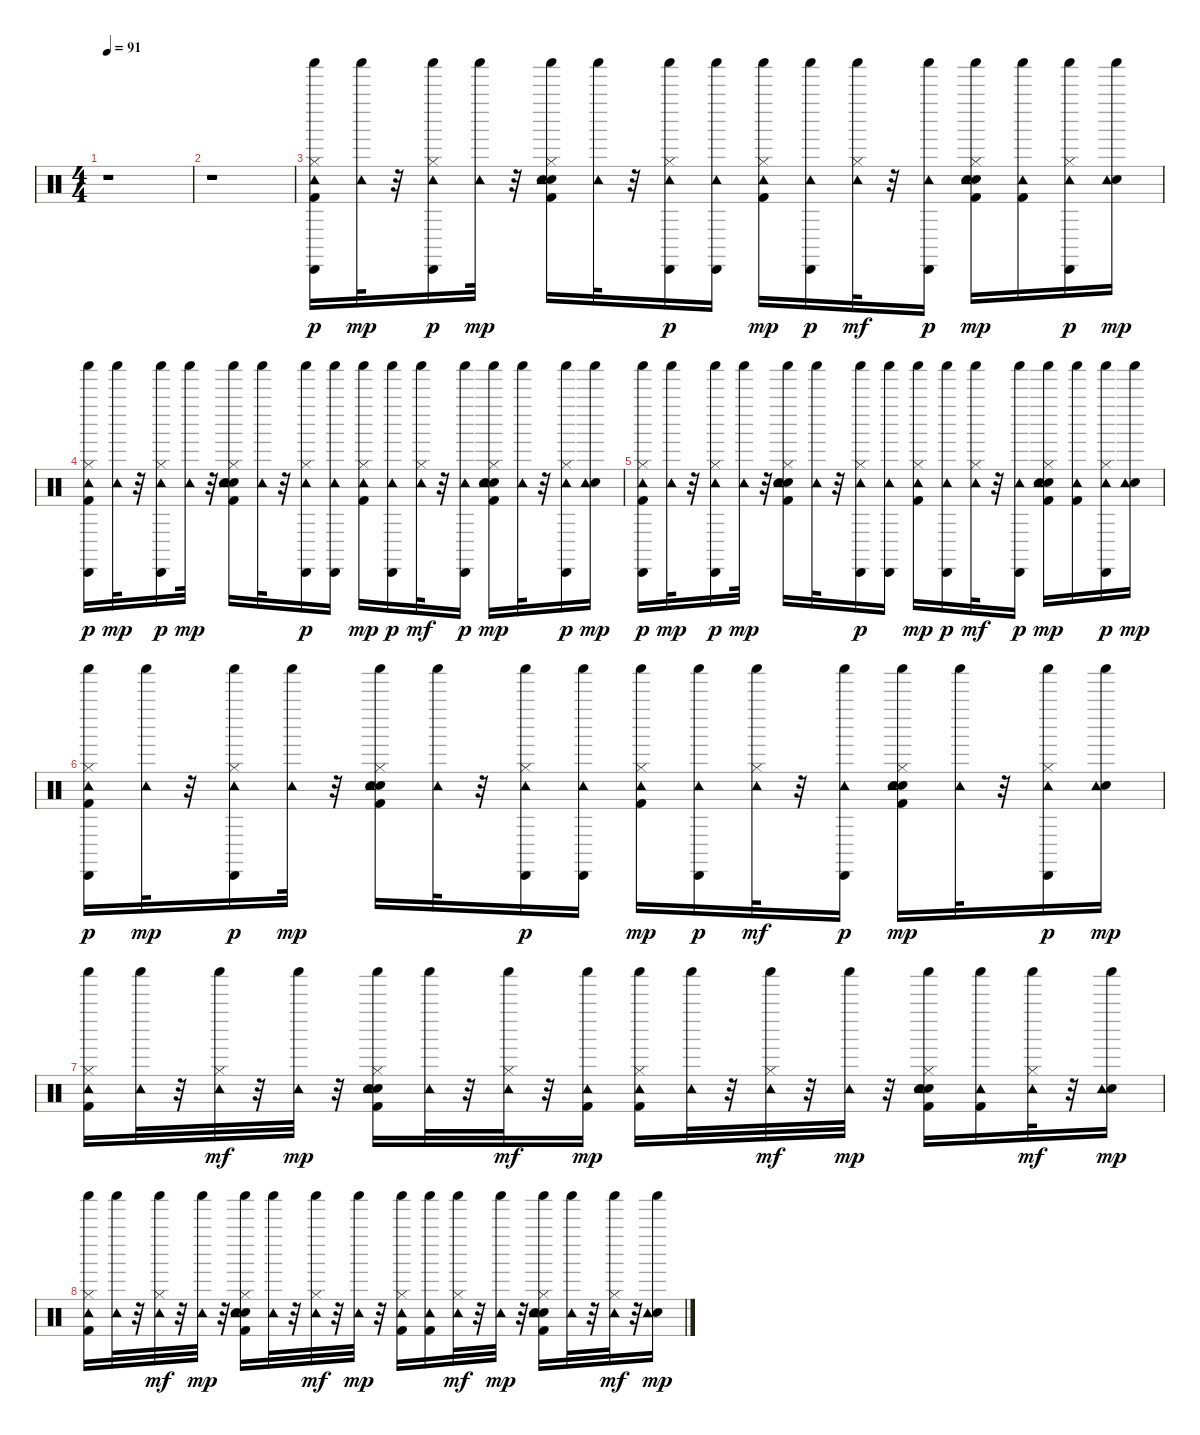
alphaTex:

\track "" {instrument percussion}
\staff {score}
\articulation defaults
\ts (4 4)
\tempo 91
\clef neutral
\ks c
r.1{dy p} |
r.1 |
("Kick (hit) 2" "Hi-Hat (closed)" "Tambourine (hit)" "Shaker (hit)" "Cabasa (hit)").16 ("Tambourine (hit)" "Shaker (hit)").32{dy mp} r.32 ("Hi-Hat (closed)" "Tambourine (hit)" "Shaker (hit)" "Cabasa (hit)").16{dy p} ("Tambourine (hit)" "Shaker (hit)").32{dy mp} r.32 ("Kick (hit) 2" "Electric Snare (hit)" "Hi-Hat (closed)" "Hand Clap (hit)" "Tambourine (hit)" "Shaker (hit)").16 ("Tambourine (hit)" "Shaker (hit)").32 r.32 ("Hi-Hat (closed)" "Tambourine (hit)" "Shaker (hit)" "Cabasa (hit)").16{dy p} ("Tambourine (hit)" "Shaker (hit)" "Cabasa (hit)").16 ("Kick (hit) 2" "Hi-Hat (closed)" "Tambourine (hit)" "Shaker (hit)").16{dy mp} ("Tambourine (hit)" "Shaker (hit)" "Cabasa (hit)").16{dy p} ("Hi-Hat (closed)" "Tambourine (hit)" "Shaker (hit)").32{dy mf} r.32 ("Tambourine (hit)" "Shaker (hit)" "Cabasa (hit)").16{dy p} ("Kick (hit) 2" "Electric Snare (hit)" "Hi-Hat (closed)" "Hand Clap (hit)" "Tambourine (hit)" "Shaker (hit)").16{dy mp} ("Kick (hit) 2" "Tambourine (hit)" "Shaker (hit)").16 ("Hi-Hat (closed)" "Tambourine (hit)" "Shaker (hit)" "Cabasa (hit)").16{dy p} ("Electric Snare (hit)" "Tambourine (hit)" "Shaker (hit)").16{dy mp} |
("Kick (hit) 2" "Hi-Hat (closed)" "Tambourine (hit)" "Shaker (hit)" "Cabasa (hit)").16{dy p} ("Tambourine (hit)" "Shaker (hit)").32{dy mp} r.32 ("Hi-Hat (closed)" "Tambourine (hit)" "Shaker (hit)" "Cabasa (hit)").16{dy p} ("Tambourine (hit)" "Shaker (hit)").32{dy mp} r.32 ("Kick (hit) 2" "Electric Snare (hit)" "Hi-Hat (closed)" "Hand Clap (hit)" "Tambourine (hit)" "Shaker (hit)").16 ("Tambourine (hit)" "Shaker (hit)").32 r.32 ("Hi-Hat (closed)" "Tambourine (hit)" "Shaker (hit)" "Cabasa (hit)").16{dy p} ("Tambourine (hit)" "Shaker (hit)" "Cabasa (hit)").16 ("Kick (hit) 2" "Hi-Hat (closed)" "Tambourine (hit)" "Shaker (hit)").16{dy mp} ("Tambourine (hit)" "Shaker (hit)" "Cabasa (hit)").16{dy p} ("Hi-Hat (closed)" "Tambourine (hit)" "Shaker (hit)").32{dy mf} r.32 ("Tambourine (hit)" "Shaker (hit)" "Cabasa (hit)").16{dy p} ("Kick (hit) 2" "Electric Snare (hit)" "Hi-Hat (closed)" "Hand Clap (hit)" "Tambourine (hit)" "Shaker (hit)").16{dy mp} ("Tambourine (hit)" "Shaker (hit)").32 r.32 ("Hi-Hat (closed)" "Tambourine (hit)" "Shaker (hit)" "Cabasa (hit)").16{dy p} ("Electric Snare (hit)" "Tambourine (hit)" "Shaker (hit)").16{dy mp} |
("Kick (hit) 2" "Hi-Hat (closed)" "Tambourine (hit)" "Shaker (hit)" "Cabasa (hit)").16{dy p} ("Tambourine (hit)" "Shaker (hit)").32{dy mp} r.32 ("Hi-Hat (closed)" "Tambourine (hit)" "Shaker (hit)" "Cabasa (hit)").16{dy p} ("Tambourine (hit)" "Shaker (hit)").32{dy mp} r.32 ("Kick (hit) 2" "Electric Snare (hit)" "Hi-Hat (closed)" "Hand Clap (hit)" "Tambourine (hit)" "Shaker (hit)").16 ("Tambourine (hit)" "Shaker (hit)").32 r.32 ("Hi-Hat (closed)" "Tambourine (hit)" "Shaker (hit)" "Cabasa (hit)").16{dy p} ("Tambourine (hit)" "Shaker (hit)" "Cabasa (hit)").16 ("Kick (hit) 2" "Hi-Hat (closed)" "Tambourine (hit)" "Shaker (hit)").16{dy mp} ("Tambourine (hit)" "Shaker (hit)" "Cabasa (hit)").16{dy p} ("Hi-Hat (closed)" "Tambourine (hit)" "Shaker (hit)").32{dy mf} r.32 ("Tambourine (hit)" "Shaker (hit)" "Cabasa (hit)").16{dy p} ("Kick (hit) 2" "Electric Snare (hit)" "Hi-Hat (closed)" "Hand Clap (hit)" "Tambourine (hit)" "Shaker (hit)").16{dy mp} ("Kick (hit) 2" "Tambourine (hit)" "Shaker (hit)").16 ("Hi-Hat (closed)" "Tambourine (hit)" "Shaker (hit)" "Cabasa (hit)").16{dy p} ("Electric Snare (hit)" "Tambourine (hit)" "Shaker (hit)").16{dy mp} |
("Kick (hit) 2" "Hi-Hat (closed)" "Tambourine (hit)" "Shaker (hit)" "Cabasa (hit)").16{dy p} ("Tambourine (hit)" "Shaker (hit)").32{dy mp} r.32 ("Hi-Hat (closed)" "Tambourine (hit)" "Shaker (hit)" "Cabasa (hit)").16{dy p} ("Tambourine (hit)" "Shaker (hit)").32{dy mp} r.32 ("Kick (hit) 2" "Electric Snare (hit)" "Hi-Hat (closed)" "Hand Clap (hit)" "Tambourine (hit)" "Shaker (hit)").16 ("Tambourine (hit)" "Shaker (hit)").32 r.32 ("Hi-Hat (closed)" "Tambourine (hit)" "Shaker (hit)" "Cabasa (hit)").16{dy p} ("Tambourine (hit)" "Shaker (hit)" "Cabasa (hit)").16 ("Kick (hit) 2" "Hi-Hat (closed)" "Tambourine (hit)" "Shaker (hit)").16{dy mp} ("Tambourine (hit)" "Shaker (hit)" "Cabasa (hit)").16{dy p} ("Hi-Hat (closed)" "Tambourine (hit)" "Shaker (hit)").32{dy mf} r.32 ("Tambourine (hit)" "Shaker (hit)" "Cabasa (hit)").16{dy p} ("Kick (hit) 2" "Electric Snare (hit)" "Hi-Hat (closed)" "Hand Clap (hit)" "Tambourine (hit)" "Shaker (hit)").16{dy mp} ("Tambourine (hit)" "Shaker (hit)").32 r.32 ("Hi-Hat (closed)" "Tambourine (hit)" "Shaker (hit)" "Cabasa (hit)").16{dy p} ("Electric Snare (hit)" "Tambourine (hit)" "Shaker (hit)").16{dy mp} |
("Kick (hit) 2" "Hi-Hat (closed)" "Tambourine (hit)" "Shaker (hit)").16 ("Tambourine (hit)" "Shaker (hit)").32 r.32 ("Hi-Hat (closed)" "Tambourine (hit)" "Shaker (hit)").32{dy mf} r.32 ("Tambourine (hit)" "Shaker (hit)").32{dy mp} r.32 ("Kick (hit) 2" "Electric Snare (hit)" "Hi-Hat (closed)" "Hand Clap (hit)" "Tambourine (hit)" "Shaker (hit)").16 ("Tambourine (hit)" "Shaker (hit)").32 r.32 ("Hi-Hat (closed)" "Tambourine (hit)" "Shaker (hit)").32{dy mf} r.32 ("Kick (hit) 2" "Tambourine (hit)" "Shaker (hit)").16{dy mp} ("Kick (hit) 2" "Hi-Hat (closed)" "Tambourine (hit)" "Shaker (hit)").16 ("Tambourine (hit)" "Shaker (hit)").32 r.32 ("Hi-Hat (closed)" "Tambourine (hit)" "Shaker (hit)").32{dy mf} r.32 ("Tambourine (hit)" "Shaker (hit)").32{dy mp} r.32 ("Kick (hit) 2" "Electric Snare (hit)" "Hi-Hat (closed)" "Hand Clap (hit)" "Tambourine (hit)" "Shaker (hit)").16 ("Kick (hit) 2" "Tambourine (hit)" "Shaker (hit)").16 ("Hi-Hat (closed)" "Tambourine (hit)" "Shaker (hit)").32{dy mf} r.32 ("Electric Snare (hit)" "Tambourine (hit)" "Shaker (hit)").16{dy mp} |
("Kick (hit) 2" "Hi-Hat (closed)" "Tambourine (hit)" "Shaker (hit)").16 ("Tambourine (hit)" "Shaker (hit)").32 r.32 ("Hi-Hat (closed)" "Tambourine (hit)" "Shaker (hit)").32{dy mf} r.32 ("Tambourine (hit)" "Shaker (hit)").32{dy mp} r.32 ("Kick (hit) 2" "Electric Snare (hit)" "Hi-Hat (closed)" "Hand Clap (hit)" "Tambourine (hit)" "Shaker (hit)").16 ("Tambourine (hit)" "Shaker (hit)").32 r.32 ("Hi-Hat (closed)" "Tambourine (hit)" "Shaker (hit)").32{dy mf} r.32 ("Tambourine (hit)" "Shaker (hit)").32{dy mp} r.32 ("Kick (hit) 2" "Hi-Hat (closed)" "Tambourine (hit)" "Shaker (hit)").16 ("Kick (hit) 2" "Tambourine (hit)" "Shaker (hit)").16 ("Hi-Hat (closed)" "Tambourine (hit)" "Shaker (hit)").32{dy mf} r.32 ("Tambourine (hit)" "Shaker (hit)").32{dy mp} r.32 ("Kick (hit) 2" "Electric Snare (hit)" "Hi-Hat (closed)" "Hand Clap (hit)" "Tambourine (hit)" "Shaker (hit)").16 ("Tambourine (hit)" "Shaker (hit)").32 r.32 ("Hi-Hat (closed)" "Tambourine (hit)" "Shaker (hit)").32{dy mf} r.32 ("Electric Snare (hit)" "Tambourine (hit)" "Shaker (hit)").16{dy mp}
